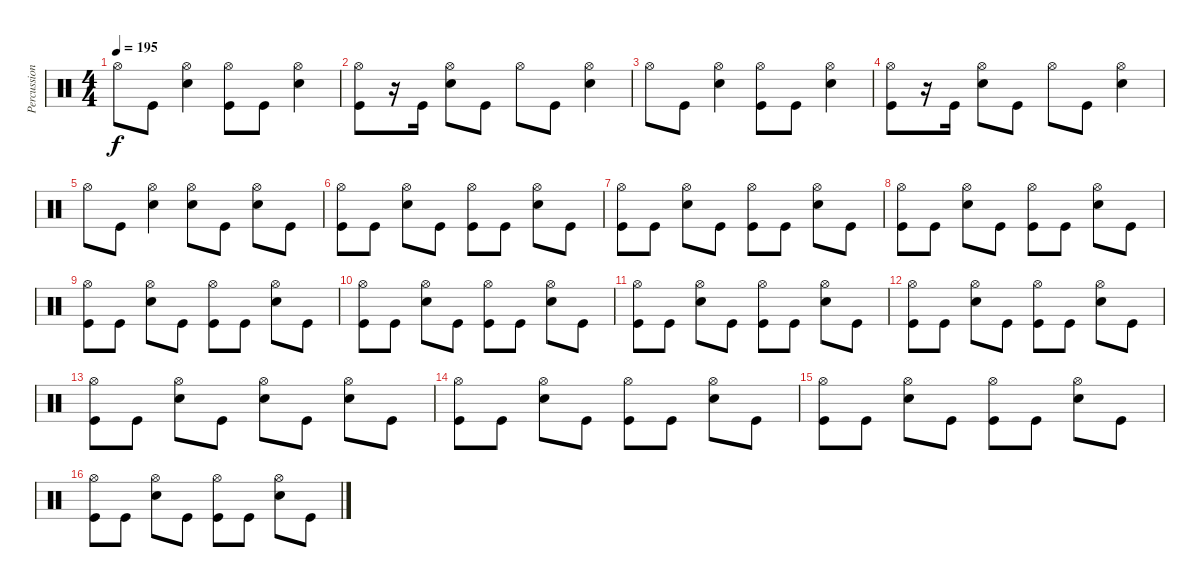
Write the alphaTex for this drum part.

\track ("Percussion" "Percussion") {instrument percussion}
\staff {score}
\articulation defaults
\ts (4 4)
\tempo 195
\clef neutral
\ks c "Hi-Hat (open)".8{dy f} "Kick (hit)".8
("Hi-Hat (open)" "Snare (hit) 2").4 ("Hi-Hat (open)" "Kick (hit)").8 "Kick (hit)".8 ("Hi-Hat (open)" "Snare (hit) 2").4 |
("Hi-Hat (open)" "Kick (hit)").8 r.16 "Kick (hit)".16 ("Hi-Hat (open)" "Snare (hit) 2").8 "Kick (hit)".8 "Hi-Hat (open)".8 "Kick (hit)".8 ("Hi-Hat (open)" "Snare (hit) 2").4 |
"Hi-Hat (open)".8 "Kick (hit)".8 ("Hi-Hat (open)" "Snare (hit) 2").4 ("Hi-Hat (open)" "Kick (hit)").8 "Kick (hit)".8 ("Hi-Hat (open)" "Snare (hit) 2").4 |
("Hi-Hat (open)" "Kick (hit)").8 r.16 "Kick (hit)".16 ("Hi-Hat (open)" "Snare (hit) 2").8 "Kick (hit)".8 "Hi-Hat (open)".8 "Kick (hit)".8 ("Hi-Hat (open)" "Snare (hit) 2").4 |
"Hi-Hat (open)".8 "Kick (hit)".8 ("Hi-Hat (open)" "Snare (hit) 2").4 ("Hi-Hat (open)" "Snare (hit) 2").8 "Kick (hit)".8 ("Hi-Hat (open)" "Snare (hit) 2").8 "Kick (hit)".8 |
("Hi-Hat (open)" "Kick (hit)").8 "Kick (hit)".8 ("Hi-Hat (open)" "Snare (hit) 2").8 "Kick (hit)".8 ("Hi-Hat (open)" "Kick (hit)").8 "Kick (hit)".8 ("Hi-Hat (open)" "Snare (hit) 2").8 "Kick (hit)".8 |
("Hi-Hat (open)" "Kick (hit)").8 "Kick (hit)".8 ("Hi-Hat (open)" "Snare (hit) 2").8 "Kick (hit)".8 ("Hi-Hat (open)" "Kick (hit)").8 "Kick (hit)".8 ("Hi-Hat (open)" "Snare (hit) 2").8 "Kick (hit)".8 |
("Hi-Hat (open)" "Kick (hit)").8 "Kick (hit)".8 ("Hi-Hat (open)" "Snare (hit) 2").8 "Kick (hit)".8 ("Hi-Hat (open)" "Kick (hit)").8 "Kick (hit)".8 ("Hi-Hat (open)" "Snare (hit) 2").8 "Kick (hit)".8 |
("Hi-Hat (open)" "Kick (hit)").8 "Kick (hit)".8 ("Hi-Hat (open)" "Snare (hit) 2").8 "Kick (hit)".8 ("Hi-Hat (open)" "Kick (hit)").8 "Kick (hit)".8 ("Hi-Hat (open)" "Snare (hit) 2").8 "Kick (hit)".8 |
("Hi-Hat (open)" "Kick (hit)").8 "Kick (hit)".8 ("Hi-Hat (open)" "Snare (hit) 2").8 "Kick (hit)".8 ("Hi-Hat (open)" "Kick (hit)").8 "Kick (hit)".8 ("Hi-Hat (open)" "Snare (hit) 2").8 "Kick (hit)".8 |
("Hi-Hat (open)" "Kick (hit)").8 "Kick (hit)".8 ("Hi-Hat (open)" "Snare (hit) 2").8 "Kick (hit)".8 ("Hi-Hat (open)" "Kick (hit)").8 "Kick (hit)".8 ("Hi-Hat (open)" "Snare (hit) 2").8 "Kick (hit)".8 |
("Hi-Hat (open)" "Kick (hit)").8 "Kick (hit)".8 ("Hi-Hat (open)" "Snare (hit) 2").8 "Kick (hit)".8 ("Hi-Hat (open)" "Kick (hit)").8 "Kick (hit)".8 ("Hi-Hat (open)" "Snare (hit) 2").8 "Kick (hit)".8 |
("Hi-Hat (open)" "Kick (hit)").8 "Kick (hit)".8 ("Hi-Hat (open)" "Snare (hit) 2").8 "Kick (hit)".8 ("Hi-Hat (open)" "Snare (hit) 2").8 "Kick (hit)".8 ("Hi-Hat (open)" "Snare (hit) 2").8 "Kick (hit)".8 |
("Hi-Hat (open)" "Kick (hit)").8 "Kick (hit)".8 ("Hi-Hat (open)" "Snare (hit) 2").8 "Kick (hit)".8 ("Hi-Hat (open)" "Kick (hit)").8 "Kick (hit)".8 ("Hi-Hat (open)" "Snare (hit) 2").8 "Kick (hit)".8 |
("Hi-Hat (open)" "Kick (hit)").8 "Kick (hit)".8 ("Hi-Hat (open)" "Snare (hit) 2").8 "Kick (hit)".8 ("Hi-Hat (open)" "Kick (hit)").8 "Kick (hit)".8 ("Hi-Hat (open)" "Snare (hit) 2").8 "Kick (hit)".8 |
("Hi-Hat (open)" "Kick (hit)").8 "Kick (hit)".8 ("Hi-Hat (open)" "Snare (hit) 2").8 "Kick (hit)".8 ("Hi-Hat (open)" "Kick (hit)").8 "Kick (hit)".8 ("Hi-Hat (open)" "Snare (hit) 2").8 "Kick (hit)".8
